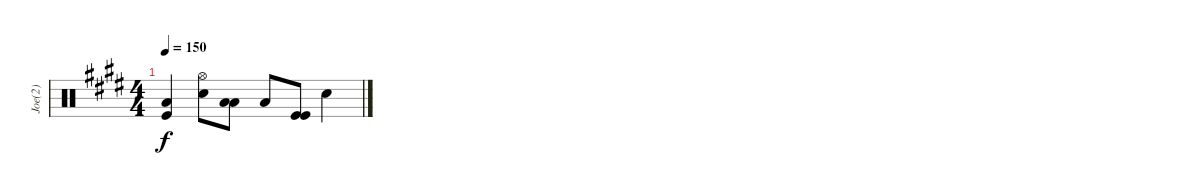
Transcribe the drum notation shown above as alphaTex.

\track ("Joe(2)" "Joe(2)") {instrument percussion}
\staff {score}
\articulation defaults
\ts (4 4)
\tempo 150
\clef neutral
\ks c#minor
("Kick (hit)" "Low Floor Tom (hit)").4{dy f} ("Snare (hit) 2" "Hi-Hat (open)").8 ("Low Tom (hit)" "Low Floor Tom (hit)").8 "Low Floor Tom (hit)".8 ("Kick (hit)" "Kick (hit)").8 "Snare (hit) 2".4
